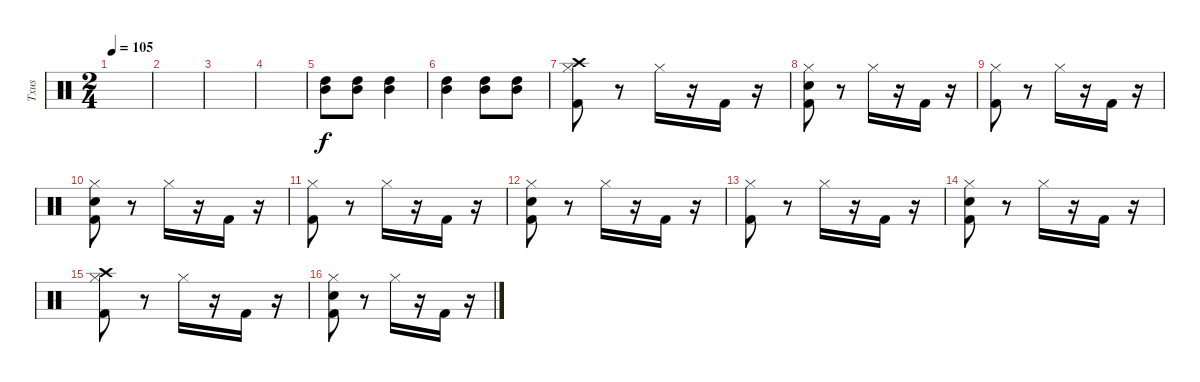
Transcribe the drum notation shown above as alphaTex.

\track ("Txus" "Txus") {instrument percussion}
\staff {score}
\articulation defaults
\ts (2 4)
\tempo 105
\clef neutral
\ks c
|
|
|
|
("High Tom (hit)" "Mid Tom (hit)").8 ("High Tom (hit)" "Mid Tom (hit)").8 ("High Tom (hit)" "Mid Tom (hit)").4 |
("High Tom (hit)" "Mid Tom (hit)").4 ("High Tom (hit)" "Mid Tom (hit)").8 ("High Tom (hit)" "Mid Tom (hit)").8 |
("Hi-Hat (closed)" "Crash high (hit)" "Kick (hit) 2").8 r.8 "Hi-Hat (closed)".16 r.16 "Kick (hit) 2".16 r.16 |
("Hi-Hat (closed)" "Electric Snare (hit)" "Kick (hit) 2").8 r.8 "Hi-Hat (closed)".16 r.16 "Kick (hit) 2".16 r.16 |
("Hi-Hat (closed)" "Kick (hit) 2").8 r.8 "Hi-Hat (closed)".16 r.16 "Kick (hit) 2".16 r.16 |
("Hi-Hat (closed)" "Electric Snare (hit)" "Kick (hit) 2").8 r.8 "Hi-Hat (closed)".16 r.16 "Kick (hit) 2".16 r.16 |
("Hi-Hat (closed)" "Kick (hit) 2").8 r.8 "Hi-Hat (closed)".16 r.16 "Kick (hit) 2".16 r.16 |
("Hi-Hat (closed)" "Electric Snare (hit)" "Kick (hit) 2").8 r.8 "Hi-Hat (closed)".16 r.16 "Kick (hit) 2".16 r.16 |
("Hi-Hat (closed)" "Kick (hit) 2").8 r.8 "Hi-Hat (closed)".16 r.16 "Kick (hit) 2".16 r.16 |
("Hi-Hat (closed)" "Electric Snare (hit)" "Kick (hit) 2").8 r.8 "Hi-Hat (closed)".16 r.16 "Kick (hit) 2".16 r.16 |
("Hi-Hat (closed)" "Crash high (hit)" "Kick (hit) 2").8 r.8 "Hi-Hat (closed)".16 r.16 "Kick (hit) 2".16 r.16 |
("Hi-Hat (closed)" "Electric Snare (hit)" "Kick (hit) 2").8 r.8 "Hi-Hat (closed)".16 r.16 "Kick (hit) 2".16 r.16
